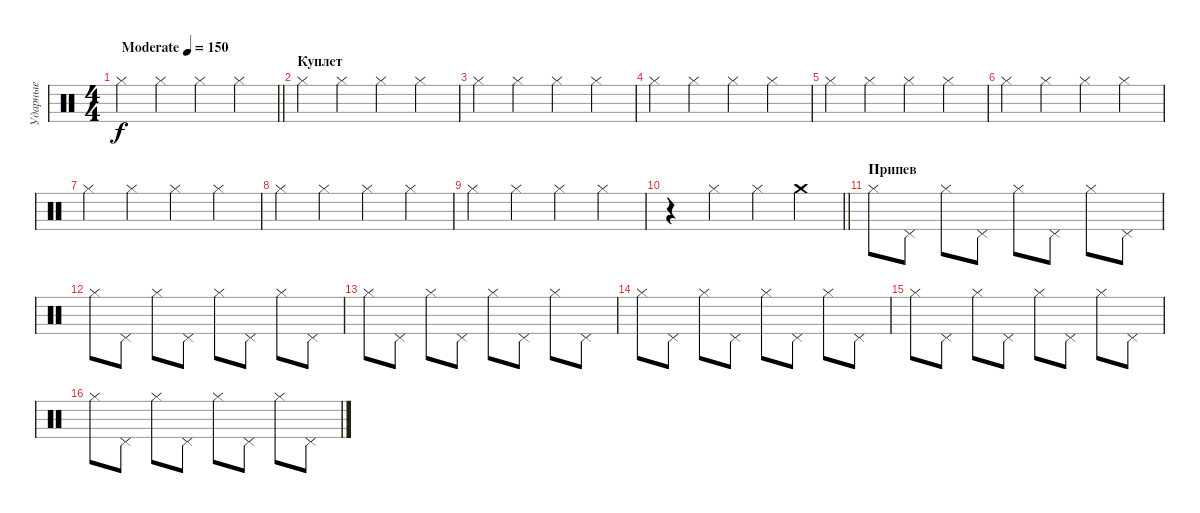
\track ("Ударные" "Ударные") {instrument percussion}
\staff {score}
\articulation defaults
\ts (4 4)
\tempo (150 "Moderate")
\clef neutral
\barLineRight lightlight
\ks c "Hi-Hat (closed)".4{dy f} "Hi-Hat (closed)".4 "Hi-Hat (closed)".4 "Hi-Hat (closed)".4
|
\section ("" "Куплет")
"Hi-Hat (closed)".4 "Hi-Hat (closed)".4 "Hi-Hat (closed)".4 "Hi-Hat (closed)".4 |
"Hi-Hat (closed)".4 "Hi-Hat (closed)".4 "Hi-Hat (closed)".4 "Hi-Hat (closed)".4 |
"Hi-Hat (closed)".4 "Hi-Hat (closed)".4 "Hi-Hat (closed)".4 "Hi-Hat (closed)".4 |
"Hi-Hat (closed)".4 "Hi-Hat (closed)".4 "Hi-Hat (closed)".4 "Hi-Hat (closed)".4 |
"Hi-Hat (closed)".4 "Hi-Hat (closed)".4 "Hi-Hat (closed)".4 "Hi-Hat (closed)".4 |
"Hi-Hat (closed)".4 "Hi-Hat (closed)".4 "Hi-Hat (closed)".4 "Hi-Hat (closed)".4 |
"Hi-Hat (closed)".4 "Hi-Hat (closed)".4 "Hi-Hat (closed)".4 "Hi-Hat (closed)".4 |
"Hi-Hat (closed)".4 "Hi-Hat (closed)".4 "Hi-Hat (closed)".4 "Hi-Hat (closed)".4 |
\barLineRight lightlight
r.4 "Hi-Hat (closed)".4 "Hi-Hat (closed)".4 "Crash medium (hit)".4 |
\section ("" "Припев")
"Hi-Hat (closed)".8 "Pedal Hi-Hat (hit)".8 "Hi-Hat (closed)".8 "Pedal Hi-Hat (hit)".8 "Hi-Hat (closed)".8 "Pedal Hi-Hat (hit)".8 "Hi-Hat (closed)".8 "Pedal Hi-Hat (hit)".8 |
"Hi-Hat (closed)".8 "Pedal Hi-Hat (hit)".8 "Hi-Hat (closed)".8 "Pedal Hi-Hat (hit)".8 "Hi-Hat (closed)".8 "Pedal Hi-Hat (hit)".8 "Hi-Hat (closed)".8 "Pedal Hi-Hat (hit)".8 |
"Hi-Hat (closed)".8 "Pedal Hi-Hat (hit)".8 "Hi-Hat (closed)".8 "Pedal Hi-Hat (hit)".8 "Hi-Hat (closed)".8 "Pedal Hi-Hat (hit)".8 "Hi-Hat (closed)".8 "Pedal Hi-Hat (hit)".8 |
"Hi-Hat (closed)".8 "Pedal Hi-Hat (hit)".8 "Hi-Hat (closed)".8 "Pedal Hi-Hat (hit)".8 "Hi-Hat (closed)".8 "Pedal Hi-Hat (hit)".8 "Hi-Hat (closed)".8 "Pedal Hi-Hat (hit)".8 |
"Hi-Hat (closed)".8 "Pedal Hi-Hat (hit)".8 "Hi-Hat (closed)".8 "Pedal Hi-Hat (hit)".8 "Hi-Hat (closed)".8 "Pedal Hi-Hat (hit)".8 "Hi-Hat (closed)".8 "Pedal Hi-Hat (hit)".8 |
"Hi-Hat (closed)".8 "Pedal Hi-Hat (hit)".8 "Hi-Hat (closed)".8 "Pedal Hi-Hat (hit)".8 "Hi-Hat (closed)".8 "Pedal Hi-Hat (hit)".8 "Hi-Hat (closed)".8 "Pedal Hi-Hat (hit)".8
